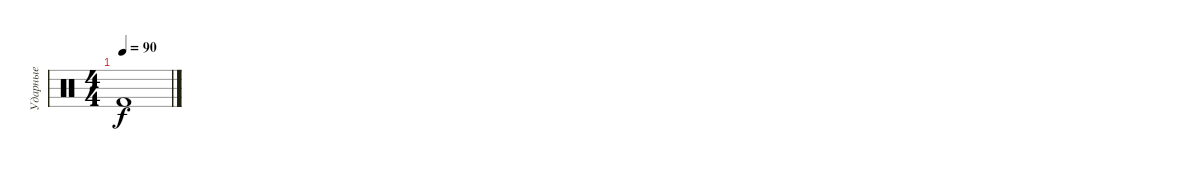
\track ("Ударные" "Ударные") {instrument percussion}
\staff {score}
\articulation defaults
\ts (4 4)
\tempo 90
\clef neutral
\ks c "Kick (hit) 2".1{dy f}
